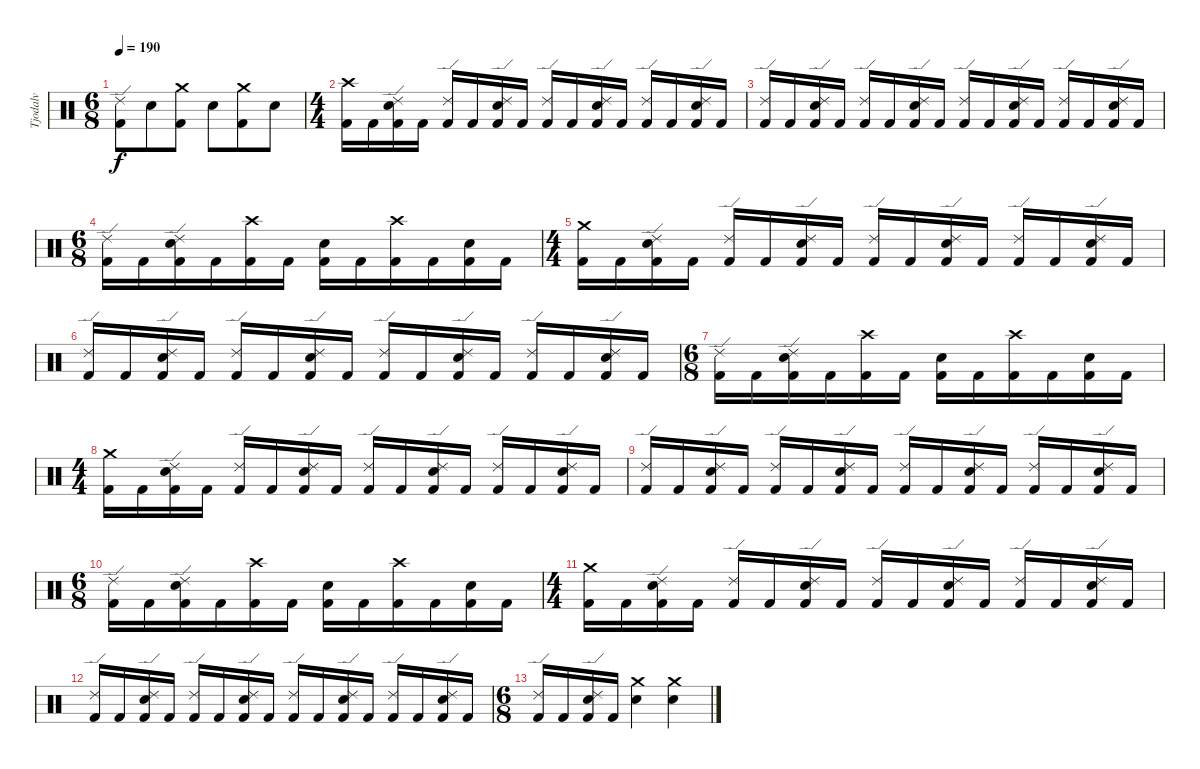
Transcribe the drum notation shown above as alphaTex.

\track ("Tjodalv" "Tjodalv") {instrument percussion}
\staff {score}
\articulation defaults
\ts (6 8)
\tempo 190
\clef neutral
\ks c
("Ride (edge) 2" "Kick (hit) 2").8{dy f} "Electric Snare (hit)".8 ("Crash medium (hit)" "Kick (hit) 2").8 "Electric Snare (hit)".8 ("Crash medium (hit)" "Kick (hit) 2").8 "Electric Snare (hit)".8 |
\ts (4 4)
("Crash high (hit)" "Kick (hit) 2").16 "Kick (hit) 2".16 ("Ride (edge) 2" "Electric Snare (hit)" "Kick (hit) 2").16 "Kick (hit) 2".16 ("Ride (edge) 2" "Kick (hit) 2").16 "Kick (hit) 2".16 ("Ride (edge) 2" "Electric Snare (hit)" "Kick (hit) 2").16 "Kick (hit) 2".16 ("Ride (edge) 2" "Kick (hit) 2").16 "Kick (hit) 2".16 ("Ride (edge) 2" "Electric Snare (hit)" "Kick (hit) 2").16 "Kick (hit) 2".16 ("Ride (edge) 2" "Kick (hit) 2").16 "Kick (hit) 2".16 ("Ride (edge) 2" "Electric Snare (hit)" "Kick (hit) 2").16 "Kick (hit) 2".16 |
("Ride (edge) 2" "Kick (hit) 2").16 "Kick (hit) 2".16 ("Ride (edge) 2" "Electric Snare (hit)" "Kick (hit) 2").16 "Kick (hit) 2".16 ("Ride (edge) 2" "Kick (hit) 2").16 "Kick (hit) 2".16 ("Ride (edge) 2" "Electric Snare (hit)" "Kick (hit) 2").16 "Kick (hit) 2".16 ("Ride (edge) 2" "Kick (hit) 2").16 "Kick (hit) 2".16 ("Ride (edge) 2" "Electric Snare (hit)" "Kick (hit) 2").16 "Kick (hit) 2".16 ("Ride (edge) 2" "Kick (hit) 2").16 "Kick (hit) 2".16 ("Ride (edge) 2" "Electric Snare (hit)" "Kick (hit) 2").16 "Kick (hit) 2".16 |
\ts (6 8)
("Ride (edge) 2" "Kick (hit) 2").16 "Kick (hit) 2".16 ("Ride (edge) 2" "Electric Snare (hit)" "Kick (hit) 2").16 "Kick (hit) 2".16 ("Crash high (hit)" "Kick (hit) 2").16 "Kick (hit) 2".16 ("Electric Snare (hit)" "Kick (hit) 2").16 "Kick (hit) 2".16 ("Crash high (hit)" "Kick (hit) 2").16 "Kick (hit) 2".16 ("Electric Snare (hit)" "Kick (hit) 2").16 "Kick (hit) 2".16 |
\ts (4 4)
("Crash medium (hit)" "Kick (hit) 2").16 "Kick (hit) 2".16 ("Ride (edge) 2" "Electric Snare (hit)" "Kick (hit) 2").16 "Kick (hit) 2".16 ("Ride (edge) 2" "Kick (hit) 2").16 "Kick (hit) 2".16 ("Ride (edge) 2" "Electric Snare (hit)" "Kick (hit) 2").16 "Kick (hit) 2".16 ("Ride (edge) 2" "Kick (hit) 2").16 "Kick (hit) 2".16 ("Ride (edge) 2" "Electric Snare (hit)" "Kick (hit) 2").16 "Kick (hit) 2".16 ("Ride (edge) 2" "Kick (hit) 2").16 "Kick (hit) 2".16 ("Ride (edge) 2" "Electric Snare (hit)" "Kick (hit) 2").16 "Kick (hit) 2".16 |
("Ride (edge) 2" "Kick (hit) 2").16 "Kick (hit) 2".16 ("Ride (edge) 2" "Electric Snare (hit)" "Kick (hit) 2").16 "Kick (hit) 2".16 ("Ride (edge) 2" "Kick (hit) 2").16 "Kick (hit) 2".16 ("Ride (edge) 2" "Electric Snare (hit)" "Kick (hit) 2").16 "Kick (hit) 2".16 ("Ride (edge) 2" "Kick (hit) 2").16 "Kick (hit) 2".16 ("Ride (edge) 2" "Electric Snare (hit)" "Kick (hit) 2").16 "Kick (hit) 2".16 ("Ride (edge) 2" "Kick (hit) 2").16 "Kick (hit) 2".16 ("Ride (edge) 2" "Electric Snare (hit)" "Kick (hit) 2").16 "Kick (hit) 2".16 |
\ts (6 8)
("Ride (edge) 2" "Kick (hit) 2").16 "Kick (hit) 2".16 ("Ride (edge) 2" "Electric Snare (hit)" "Kick (hit) 2").16 "Kick (hit) 2".16 ("Crash high (hit)" "Kick (hit) 2").16 "Kick (hit) 2".16 ("Electric Snare (hit)" "Kick (hit) 2").16 "Kick (hit) 2".16 ("Crash high (hit)" "Kick (hit) 2").16 "Kick (hit) 2".16 ("Electric Snare (hit)" "Kick (hit) 2").16 "Kick (hit) 2".16 |
\ts (4 4)
("Crash medium (hit)" "Kick (hit) 2").16 "Kick (hit) 2".16 ("Ride (edge) 2" "Electric Snare (hit)" "Kick (hit) 2").16 "Kick (hit) 2".16 ("Ride (edge) 2" "Kick (hit) 2").16 "Kick (hit) 2".16 ("Ride (edge) 2" "Electric Snare (hit)" "Kick (hit) 2").16 "Kick (hit) 2".16 ("Ride (edge) 2" "Kick (hit) 2").16 "Kick (hit) 2".16 ("Ride (edge) 2" "Electric Snare (hit)" "Kick (hit) 2").16 "Kick (hit) 2".16 ("Ride (edge) 2" "Kick (hit) 2").16 "Kick (hit) 2".16 ("Ride (edge) 2" "Electric Snare (hit)" "Kick (hit) 2").16 "Kick (hit) 2".16 |
("Ride (edge) 2" "Kick (hit) 2").16 "Kick (hit) 2".16 ("Ride (edge) 2" "Electric Snare (hit)" "Kick (hit) 2").16 "Kick (hit) 2".16 ("Ride (edge) 2" "Kick (hit) 2").16 "Kick (hit) 2".16 ("Ride (edge) 2" "Electric Snare (hit)" "Kick (hit) 2").16 "Kick (hit) 2".16 ("Ride (edge) 2" "Kick (hit) 2").16 "Kick (hit) 2".16 ("Ride (edge) 2" "Electric Snare (hit)" "Kick (hit) 2").16 "Kick (hit) 2".16 ("Ride (edge) 2" "Kick (hit) 2").16 "Kick (hit) 2".16 ("Ride (edge) 2" "Electric Snare (hit)" "Kick (hit) 2").16 "Kick (hit) 2".16 |
\ts (6 8)
("Ride (edge) 2" "Kick (hit) 2").16 "Kick (hit) 2".16 ("Ride (edge) 2" "Electric Snare (hit)" "Kick (hit) 2").16 "Kick (hit) 2".16 ("Crash high (hit)" "Kick (hit) 2").16 "Kick (hit) 2".16 ("Electric Snare (hit)" "Kick (hit) 2").16 "Kick (hit) 2".16 ("Crash high (hit)" "Kick (hit) 2").16 "Kick (hit) 2".16 ("Electric Snare (hit)" "Kick (hit) 2").16 "Kick (hit) 2".16 |
\ts (4 4)
("Crash medium (hit)" "Kick (hit) 2").16 "Kick (hit) 2".16 ("Ride (edge) 2" "Electric Snare (hit)" "Kick (hit) 2").16 "Kick (hit) 2".16 ("Ride (edge) 2" "Kick (hit) 2").16 "Kick (hit) 2".16 ("Ride (edge) 2" "Electric Snare (hit)" "Kick (hit) 2").16 "Kick (hit) 2".16 ("Ride (edge) 2" "Kick (hit) 2").16 "Kick (hit) 2".16 ("Ride (edge) 2" "Electric Snare (hit)" "Kick (hit) 2").16 "Kick (hit) 2".16 ("Ride (edge) 2" "Kick (hit) 2").16 "Kick (hit) 2".16 ("Ride (edge) 2" "Electric Snare (hit)" "Kick (hit) 2").16 "Kick (hit) 2".16 |
("Ride (edge) 2" "Kick (hit) 2").16 "Kick (hit) 2".16 ("Ride (edge) 2" "Electric Snare (hit)" "Kick (hit) 2").16 "Kick (hit) 2".16 ("Ride (edge) 2" "Kick (hit) 2").16 "Kick (hit) 2".16 ("Ride (edge) 2" "Electric Snare (hit)" "Kick (hit) 2").16 "Kick (hit) 2".16 ("Ride (edge) 2" "Kick (hit) 2").16 "Kick (hit) 2".16 ("Ride (edge) 2" "Electric Snare (hit)" "Kick (hit) 2").16 "Kick (hit) 2".16 ("Ride (edge) 2" "Kick (hit) 2").16 "Kick (hit) 2".16 ("Ride (edge) 2" "Electric Snare (hit)" "Kick (hit) 2").16 "Kick (hit) 2".16 |
\ts (6 8)
("Ride (edge) 2" "Kick (hit) 2").16 "Kick (hit) 2".16 ("Ride (edge) 2" "Electric Snare (hit)" "Kick (hit) 2").16 "Kick (hit) 2".16 ("Crash medium (hit)" "Electric Snare (hit)").4 ("Crash medium (hit)" "Electric Snare (hit)").4
